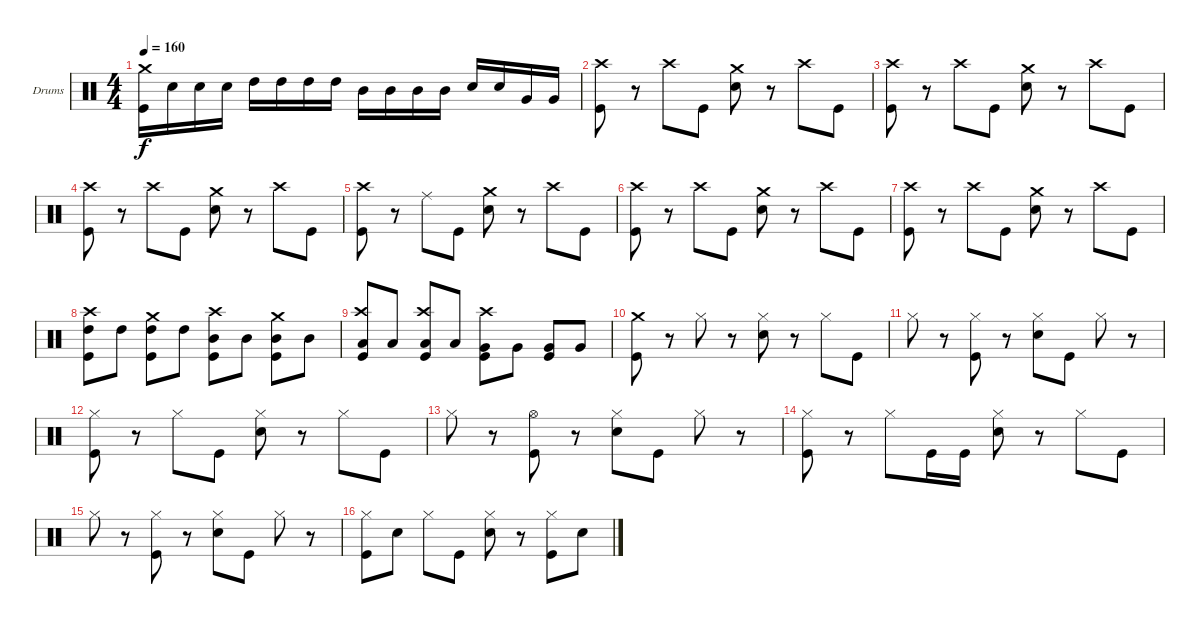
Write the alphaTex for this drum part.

\bracketExtendMode groupsimilarinstruments
\firstSystemTrackNameOrientation horizontal
\otherSystemsTrackNameOrientation horizontal
\track ("Drumkit" "Drums") {instrument percussion}
\staff {score}
\articulation defaults
\ts (4 4)
\tempo 160
\clef neutral
\ks c
("Crash medium (hit)" "Kick (hit)").16{dy f} "Snare (hit) 2".16 "Snare (hit) 2".16 "Snare (hit) 2".16 "High Tom (hit)".16 "High Tom (hit)".16 "High Tom (hit)".16 "High Tom (hit)".16 "Mid Tom (hit)".16 "Mid Tom (hit)".16 "Mid Tom (hit)".16 "Mid Tom (hit)".16 "Snare (hit) 2".16 "Snare (hit) 2".16 "Very Low Tom (hit)".16 "Very Low Tom (hit)".16 |
("Crash high (hit)" "Kick (hit)").8 r.8 "Crash high (hit)".8 "Kick (hit)".8 ("Crash medium (hit)" "Snare (hit) 2").8 r.8 "Crash high (hit)".8 "Kick (hit)".8 |
("Crash high (hit)" "Kick (hit)").8 r.8 "Crash high (hit)".8 "Kick (hit)".8 ("Crash medium (hit)" "Snare (hit) 2").8 r.8 "Crash high (hit)".8 "Kick (hit)".8 |
("Crash high (hit)" "Kick (hit)").8 r.8 "Crash high (hit)".8 "Kick (hit)".8 ("Crash medium (hit)" "Snare (hit) 2").8 r.8 "Crash high (hit)".8 "Kick (hit)".8 |
("Crash high (hit)" "Kick (hit)").8 r.8 "Ride (middle)".8 "Kick (hit)".8 ("Crash medium (hit)" "Snare (hit) 2").8 r.8 "Crash high (hit)".8 "Kick (hit)".8 |
("Crash high (hit)" "Kick (hit)").8 r.8 "Crash high (hit)".8 "Kick (hit)".8 ("Crash medium (hit)" "Snare (hit) 2").8 r.8 "Crash high (hit)".8 "Kick (hit)".8 |
("Crash high (hit)" "Kick (hit)").8 r.8 "Crash high (hit)".8 "Kick (hit)".8 ("Crash medium (hit)" "Snare (hit) 2").8 r.8 "Crash high (hit)".8 "Kick (hit)".8 |
("Crash high (hit)" "High Tom (hit)" "Kick (hit)").8 "High Tom (hit)".8 ("Crash medium (hit)" "High Tom (hit)" "Kick (hit)").8 "High Tom (hit)".8 ("Crash high (hit)" "Mid Tom (hit)" "Kick (hit)").8 "Mid Tom (hit)".8 ("Crash medium (hit)" "Mid Tom (hit)" "Kick (hit)").8 "Mid Tom (hit)".8 |
("Crash high (hit)" "Low Tom (hit)" "Kick (hit)").8 "Low Tom (hit)".8 ("Crash high (hit)" "Low Tom (hit)" "Kick (hit)").8 "Low Tom (hit)".8 ("Crash high (hit)" "Very Low Tom (hit)" "Kick (hit)").8 "Very Low Tom (hit)".8 ("Very Low Tom (hit)" "Kick (hit)").8 "Very Low Tom (hit)".8 |
("Crash medium (hit)" "Kick (hit)").8 r.8 "Hi-Hat (closed)".8 r.8 ("Hi-Hat (closed)" "Snare (hit) 2").8 r.8 "Hi-Hat (closed)".8 "Kick (hit)".8 |
"Hi-Hat (closed)".8 r.8 ("Hi-Hat (closed)" "Kick (hit)").8 r.8 ("Hi-Hat (closed)" "Snare (hit) 2").8 "Kick (hit)".8 "Hi-Hat (closed)".8 r.8 |
("Hi-Hat (closed)" "Kick (hit)").8 r.8 "Hi-Hat (closed)".8 "Kick (hit)".8 ("Hi-Hat (closed)" "Snare (hit) 2").8 r.8 "Hi-Hat (closed)".8 "Kick (hit)".8 |
"Hi-Hat (closed)".8 r.8 ("Hi-Hat (open)" "Kick (hit)").8 r.8 ("Hi-Hat (closed)" "Snare (hit) 2").8 "Kick (hit)".8 "Hi-Hat (closed)".8 r.8 |
("Hi-Hat (closed)" "Kick (hit)").8 r.8 "Hi-Hat (closed)".8 "Kick (hit)".16 "Kick (hit)".16 ("Hi-Hat (closed)" "Snare (hit) 2").8 r.8 "Hi-Hat (closed)".8 "Kick (hit)".8 |
"Hi-Hat (closed)".8 r.8 ("Hi-Hat (closed)" "Kick (hit)").8 r.8 ("Hi-Hat (closed)" "Snare (hit) 2").8 "Kick (hit)".8 "Hi-Hat (closed)".8 r.8 |
("Hi-Hat (closed)" "Kick (hit)").8 "Snare (hit) 2".8 "Hi-Hat (closed)".8 "Kick (hit)".8 ("Hi-Hat (closed)" "Snare (hit) 2").8 r.8 ("Hi-Hat (closed)" "Kick (hit)").8 "Snare (hit) 2".8
